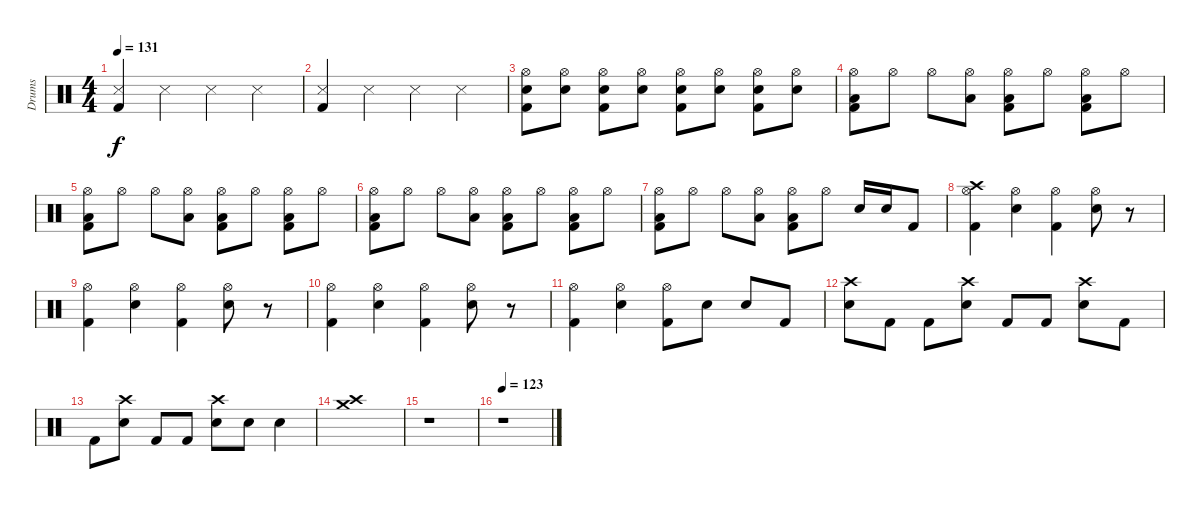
\track ("Drums" "Drums") {instrument percussion}
\staff {score}
\articulation defaults
\ts (4 4)
\tempo 131
\clef neutral
\ks c
("Snare (side stick) 3" "Kick (hit) 2").4{dy f} "Snare (side stick) 3".4 "Snare (side stick) 3".4 "Snare (side stick) 3".4 |
("Snare (side stick) 3" "Kick (hit) 2").4 "Snare (side stick) 3".4 "Snare (side stick) 3".4 "Snare (side stick) 3".4 |
("Hi-Hat (open)" "Electric Snare (hit)" "Kick (hit) 2").8 ("Hi-Hat (open)" "Electric Snare (hit)").8 ("Hi-Hat (open)" "Electric Snare (hit)" "Kick (hit) 2").8 ("Hi-Hat (open)" "Electric Snare (hit)").8 ("Hi-Hat (open)" "Electric Snare (hit)" "Kick (hit) 2").8 ("Hi-Hat (open)" "Electric Snare (hit)").8 ("Hi-Hat (open)" "Electric Snare (hit)" "Kick (hit) 2").8 ("Hi-Hat (open)" "Electric Snare (hit)").8 |
("Hi-Hat (open)" "Low Tom (hit)" "Kick (hit) 2").8 "Hi-Hat (open)".8 "Hi-Hat (open)".8 ("Hi-Hat (open)" "Low Tom (hit)").8 ("Hi-Hat (open)" "Low Tom (hit)" "Kick (hit) 2").8 "Hi-Hat (open)".8 ("Hi-Hat (open)" "Low Tom (hit)" "Kick (hit) 2").8 "Hi-Hat (open)".8 |
("Hi-Hat (open)" "Low Tom (hit)" "Kick (hit) 2").8 "Hi-Hat (open)".8 "Hi-Hat (open)".8 ("Hi-Hat (open)" "Low Tom (hit)").8 ("Hi-Hat (open)" "Low Tom (hit)" "Kick (hit) 2").8 "Hi-Hat (open)".8 ("Hi-Hat (open)" "Low Tom (hit)" "Kick (hit) 2").8 "Hi-Hat (open)".8 |
("Hi-Hat (open)" "Low Tom (hit)" "Kick (hit) 2").8 "Hi-Hat (open)".8 "Hi-Hat (open)".8 ("Hi-Hat (open)" "Low Tom (hit)").8 ("Hi-Hat (open)" "Low Tom (hit)" "Kick (hit) 2").8 "Hi-Hat (open)".8 ("Hi-Hat (open)" "Low Tom (hit)" "Kick (hit) 2").8 "Hi-Hat (open)".8 |
("Hi-Hat (open)" "Low Tom (hit)" "Kick (hit) 2").8 "Hi-Hat (open)".8 "Hi-Hat (open)".8 ("Hi-Hat (open)" "Low Tom (hit)").8 ("Hi-Hat (open)" "Low Tom (hit)" "Kick (hit) 2").8 "Hi-Hat (open)".8 "Electric Snare (hit)".16 "Electric Snare (hit)".16 "Kick (hit) 2".8 |
("Crash high (hit)" "Hi-Hat (open)" "Kick (hit) 2").4 ("Hi-Hat (open)" "Electric Snare (hit)").4 ("Hi-Hat (open)" "Kick (hit) 2").4 ("Hi-Hat (open)" "Electric Snare (hit)").8 r.8 |
("Hi-Hat (open)" "Kick (hit) 2").4 ("Hi-Hat (open)" "Electric Snare (hit)").4 ("Hi-Hat (open)" "Kick (hit) 2").4 ("Hi-Hat (open)" "Electric Snare (hit)").8 r.8 |
("Hi-Hat (open)" "Kick (hit) 2").4 ("Hi-Hat (open)" "Electric Snare (hit)").4 ("Hi-Hat (open)" "Kick (hit) 2").4 ("Hi-Hat (open)" "Electric Snare (hit)").8 r.8 |
("Hi-Hat (open)" "Kick (hit) 2").4 ("Hi-Hat (open)" "Electric Snare (hit)").4 ("Hi-Hat (open)" "Kick (hit) 2").8 "Electric Snare (hit)".8 "Electric Snare (hit)".8 "Kick (hit) 2".8 |
("Crash high (hit)" "Electric Snare (hit)").8 "Kick (hit) 2".8 "Kick (hit) 2".8 ("Crash high (hit)" "Electric Snare (hit)").8 "Kick (hit) 2".8 "Kick (hit) 2".8 ("Crash high (hit)" "Electric Snare (hit)").8 "Kick (hit) 2".8 |
"Kick (hit) 2".8 ("Crash high (hit)" "Electric Snare (hit)").8 "Kick (hit) 2".8 "Kick (hit) 2".8 ("Crash high (hit)" "Electric Snare (hit)").8 "Electric Snare (hit)".8 "Electric Snare (hit)".4 |
("Crash high (hit)" "Crash medium (hit)").1 |
r.1 |
\tempo 123
r.1
